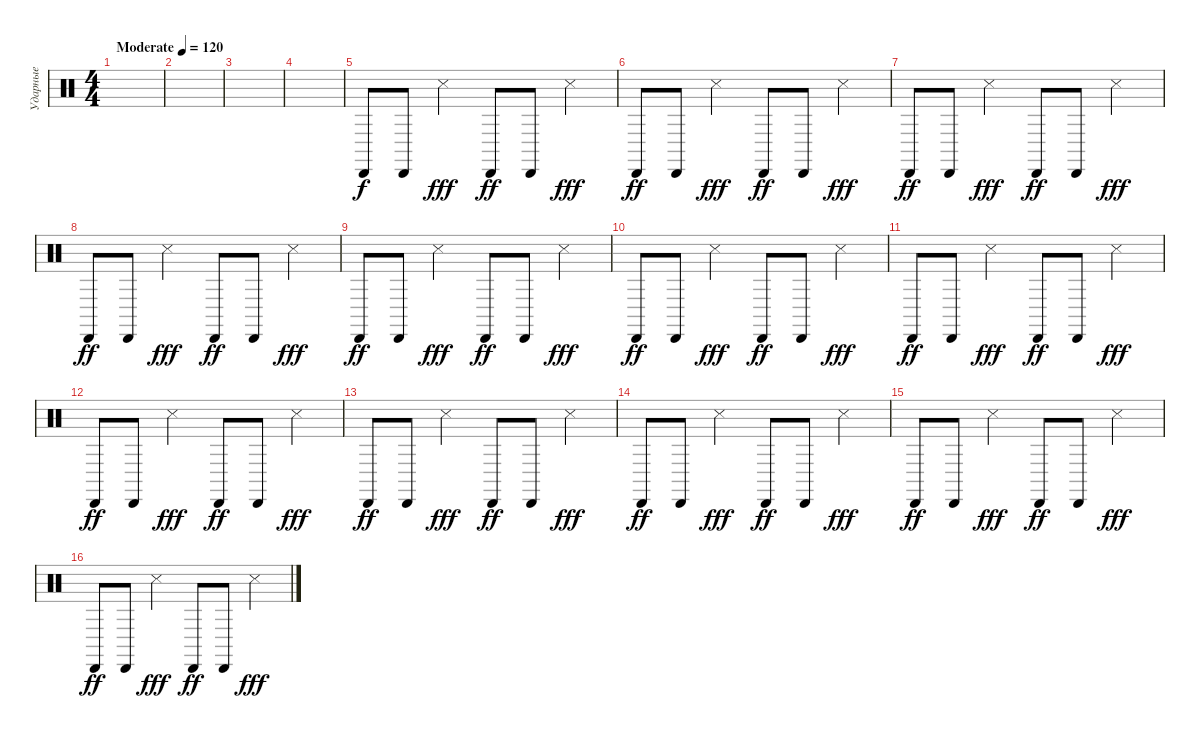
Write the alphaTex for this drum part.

\track ("Ударные" "Ударные") {instrument percussion}
\staff {score}
\articulation defaults
\ts (4 4)
\tempo (120 "Moderate")
\clef neutral
\ks c
|
|
|
|
"Cabasa (hit)".8 "Cabasa (hit)".8 "Snare (side stick) 3".4{dy fff} "Cabasa (hit)".8{dy ff} "Cabasa (hit)".8 "Snare (side stick) 3".4{dy fff} |
"Cabasa (hit)".8{dy ff} "Cabasa (hit)".8 "Snare (side stick) 3".4{dy fff} "Cabasa (hit)".8{dy ff} "Cabasa (hit)".8 "Snare (side stick) 3".4{dy fff} |
"Cabasa (hit)".8{dy ff} "Cabasa (hit)".8 "Snare (side stick) 3".4{dy fff} "Cabasa (hit)".8{dy ff} "Cabasa (hit)".8 "Snare (side stick) 3".4{dy fff} |
"Cabasa (hit)".8{dy ff} "Cabasa (hit)".8 "Snare (side stick) 3".4{dy fff} "Cabasa (hit)".8{dy ff} "Cabasa (hit)".8 "Snare (side stick) 3".4{dy fff} |
"Cabasa (hit)".8{dy ff} "Cabasa (hit)".8 "Snare (side stick) 3".4{dy fff} "Cabasa (hit)".8{dy ff} "Cabasa (hit)".8 "Snare (side stick) 3".4{dy fff} |
"Cabasa (hit)".8{dy ff} "Cabasa (hit)".8 "Snare (side stick) 3".4{dy fff} "Cabasa (hit)".8{dy ff} "Cabasa (hit)".8 "Snare (side stick) 3".4{dy fff} |
"Cabasa (hit)".8{dy ff} "Cabasa (hit)".8 "Snare (side stick) 3".4{dy fff} "Cabasa (hit)".8{dy ff} "Cabasa (hit)".8 "Snare (side stick) 3".4{dy fff} |
"Cabasa (hit)".8{dy ff} "Cabasa (hit)".8 "Snare (side stick) 3".4{dy fff} "Cabasa (hit)".8{dy ff} "Cabasa (hit)".8 "Snare (side stick) 3".4{dy fff} |
"Cabasa (hit)".8{dy ff} "Cabasa (hit)".8 "Snare (side stick) 3".4{dy fff} "Cabasa (hit)".8{dy ff} "Cabasa (hit)".8 "Snare (side stick) 3".4{dy fff} |
"Cabasa (hit)".8{dy ff} "Cabasa (hit)".8 "Snare (side stick) 3".4{dy fff} "Cabasa (hit)".8{dy ff} "Cabasa (hit)".8 "Snare (side stick) 3".4{dy fff} |
"Cabasa (hit)".8{dy ff} "Cabasa (hit)".8 "Snare (side stick) 3".4{dy fff} "Cabasa (hit)".8{dy ff} "Cabasa (hit)".8 "Snare (side stick) 3".4{dy fff} |
"Cabasa (hit)".8{dy ff} "Cabasa (hit)".8 "Snare (side stick) 3".4{dy fff} "Cabasa (hit)".8{dy ff} "Cabasa (hit)".8 "Snare (side stick) 3".4{dy fff}
